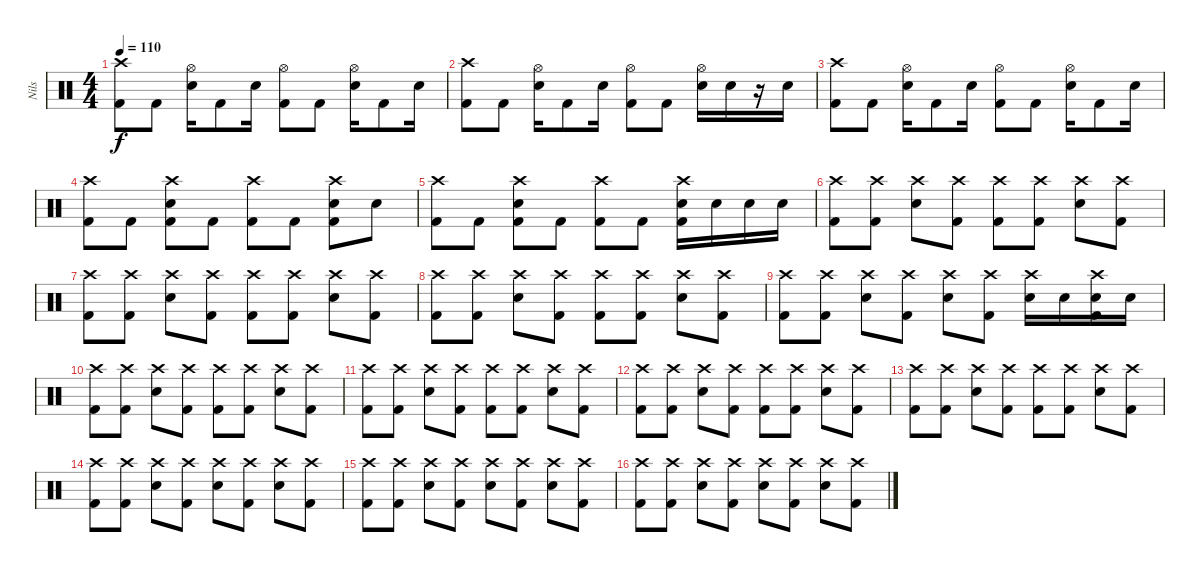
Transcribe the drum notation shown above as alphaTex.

\track ("Nils" "Nils") {instrument percussion}
\staff {score}
\articulation defaults
\ts (4 4)
\tempo 110
\clef neutral
\ks c
("Crash high (hit)" "Kick (hit) 2").8{dy f} "Kick (hit) 2".8 ("Hi-Hat (open)" "Snare (hit) 2").16 "Kick (hit) 2".8 "Snare (hit) 2".16 ("Hi-Hat (open)" "Kick (hit) 2").8 "Kick (hit) 2".8 ("Hi-Hat (open)" "Snare (hit) 2").16 "Kick (hit) 2".8 "Snare (hit) 2".16 |
("Crash high (hit)" "Kick (hit) 2").8 "Kick (hit) 2".8 ("Hi-Hat (open)" "Snare (hit) 2").16 "Kick (hit) 2".8 "Snare (hit) 2".16 ("Hi-Hat (open)" "Kick (hit) 2").8 "Kick (hit) 2".8 ("Hi-Hat (open)" "Snare (hit) 2").16 "Snare (hit) 2".16 r.16 "Snare (hit) 2".16 |
("Crash high (hit)" "Kick (hit) 2").8 "Kick (hit) 2".8 ("Hi-Hat (open)" "Snare (hit) 2").16 "Kick (hit) 2".8 "Snare (hit) 2".16 ("Hi-Hat (open)" "Kick (hit) 2").8 "Kick (hit) 2".8 ("Hi-Hat (open)" "Snare (hit) 2").16 "Kick (hit) 2".8 "Snare (hit) 2".16 |
("Crash high (hit)" "Kick (hit) 2").8 "Kick (hit) 2".8 ("Crash high (hit)" "Snare (hit) 2" "Kick (hit) 2").8 "Kick (hit) 2".8 ("Crash high (hit)" "Kick (hit) 2").8 "Kick (hit) 2".8 ("Crash high (hit)" "Snare (hit) 2" "Kick (hit) 2").8 "Snare (hit) 2".8 |
("Crash high (hit)" "Kick (hit) 2").8 "Kick (hit) 2".8 ("Crash high (hit)" "Snare (hit) 2" "Kick (hit) 2").8 "Kick (hit) 2".8 ("Crash high (hit)" "Kick (hit) 2").8 "Kick (hit) 2".8 ("Crash high (hit)" "Snare (hit) 2" "Kick (hit) 2").16 "Snare (hit) 2".16 "Snare (hit) 2".16 "Snare (hit) 2".16 |
("Crash high (hit)" "Kick (hit) 2").8 ("Crash high (hit)" "Kick (hit) 2").8 ("Crash high (hit)" "Snare (hit) 2").8 ("Crash high (hit)" "Kick (hit) 2").8 ("Crash high (hit)" "Kick (hit) 2").8 ("Crash high (hit)" "Kick (hit) 2").8 ("Crash high (hit)" "Snare (hit) 2").8 ("Crash high (hit)" "Kick (hit) 2").8 |
("Crash high (hit)" "Kick (hit) 2").8 ("Crash high (hit)" "Kick (hit) 2").8 ("Crash high (hit)" "Snare (hit) 2").8 ("Crash high (hit)" "Kick (hit) 2").8 ("Crash high (hit)" "Kick (hit) 2").8 ("Crash high (hit)" "Kick (hit) 2").8 ("Crash high (hit)" "Snare (hit) 2").8 ("Crash high (hit)" "Kick (hit) 2").8 |
("Crash high (hit)" "Kick (hit) 2").8 ("Crash high (hit)" "Kick (hit) 2").8 ("Crash high (hit)" "Snare (hit) 2").8 ("Crash high (hit)" "Kick (hit) 2").8 ("Crash high (hit)" "Kick (hit) 2").8 ("Crash high (hit)" "Kick (hit) 2").8 ("Crash high (hit)" "Snare (hit) 2").8 ("Crash high (hit)" "Kick (hit) 2").8 |
("Crash high (hit)" "Kick (hit) 2").8 ("Crash high (hit)" "Kick (hit) 2").8 ("Crash high (hit)" "Snare (hit) 2").8 ("Crash high (hit)" "Kick (hit) 2").8 ("Crash high (hit)" "Snare (hit) 2").8 ("Crash high (hit)" "Kick (hit) 2").8 ("Crash high (hit)" "Snare (hit) 2").16 "Snare (hit) 2".16 ("Crash high (hit)" "Snare (hit) 2" "Kick (hit) 2").16 "Snare (hit) 2".16 |
("Crash high (hit)" "Kick (hit) 2").8 ("Crash high (hit)" "Kick (hit) 2").8 ("Crash high (hit)" "Snare (hit) 2").8 ("Crash high (hit)" "Kick (hit) 2").8 ("Crash high (hit)" "Kick (hit) 2").8 ("Crash high (hit)" "Kick (hit) 2").8 ("Crash high (hit)" "Snare (hit) 2").8 ("Crash high (hit)" "Kick (hit) 2").8 |
("Crash high (hit)" "Kick (hit) 2").8 ("Crash high (hit)" "Kick (hit) 2").8 ("Crash high (hit)" "Snare (hit) 2").8 ("Crash high (hit)" "Kick (hit) 2").8 ("Crash high (hit)" "Kick (hit) 2").8 ("Crash high (hit)" "Kick (hit) 2").8 ("Crash high (hit)" "Snare (hit) 2").8 ("Crash high (hit)" "Kick (hit) 2").8 |
("Crash high (hit)" "Kick (hit) 2").8 ("Crash high (hit)" "Kick (hit) 2").8 ("Crash high (hit)" "Snare (hit) 2").8 ("Crash high (hit)" "Kick (hit) 2").8 ("Crash high (hit)" "Kick (hit) 2").8 ("Crash high (hit)" "Kick (hit) 2").8 ("Crash high (hit)" "Snare (hit) 2").8 ("Crash high (hit)" "Kick (hit) 2").8 |
("Crash high (hit)" "Kick (hit) 2").8 ("Crash high (hit)" "Kick (hit) 2").8 ("Crash high (hit)" "Snare (hit) 2").8 ("Crash high (hit)" "Kick (hit) 2").8 ("Crash high (hit)" "Kick (hit) 2").8 ("Crash high (hit)" "Kick (hit) 2").8 ("Crash high (hit)" "Snare (hit) 2").8 ("Crash high (hit)" "Kick (hit) 2").8 |
("Crash high (hit)" "Kick (hit) 2").8 ("Crash high (hit)" "Kick (hit) 2").8 ("Crash high (hit)" "Snare (hit) 2").8 ("Crash high (hit)" "Kick (hit) 2").8 ("Crash high (hit)" "Snare (hit) 2").8 ("Crash high (hit)" "Kick (hit) 2").8 ("Crash high (hit)" "Snare (hit) 2").8 ("Crash high (hit)" "Kick (hit) 2").8 |
("Crash high (hit)" "Kick (hit) 2").8 ("Crash high (hit)" "Kick (hit) 2").8 ("Crash high (hit)" "Snare (hit) 2").8 ("Crash high (hit)" "Kick (hit) 2").8 ("Crash high (hit)" "Snare (hit) 2").8 ("Crash high (hit)" "Kick (hit) 2").8 ("Crash high (hit)" "Snare (hit) 2").8 ("Crash high (hit)" "Kick (hit) 2").8 |
("Crash high (hit)" "Kick (hit) 2").8 ("Crash high (hit)" "Kick (hit) 2").8 ("Crash high (hit)" "Snare (hit) 2").8 ("Crash high (hit)" "Kick (hit) 2").8 ("Crash high (hit)" "Snare (hit) 2").8 ("Crash high (hit)" "Kick (hit) 2").8 ("Crash high (hit)" "Snare (hit) 2").8 ("Crash high (hit)" "Kick (hit) 2").8
